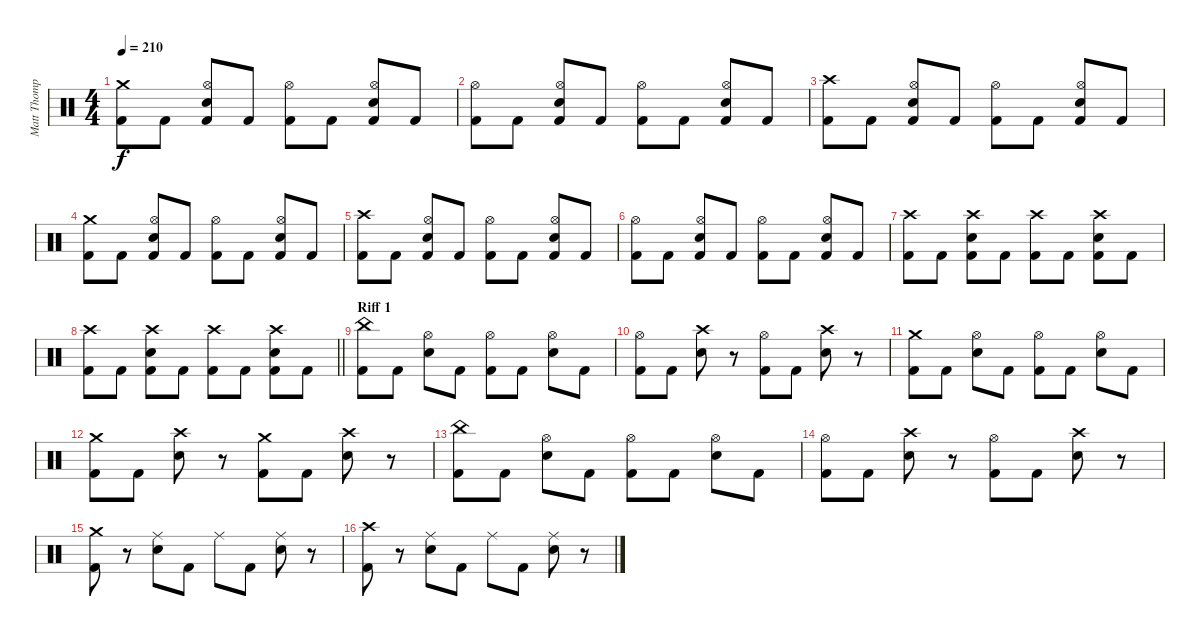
\track ("Matt Thompson" "Matt Thomp") {instrument percussion}
\staff {score}
\articulation defaults
\ts (4 4)
\tempo 210
\clef neutral
\ks c
("Crash medium (hit)" "Kick (hit) 2").8{dy f} "Kick (hit) 2".8 ("Hi-Hat (open)" "Electric Snare (hit)" "Kick (hit) 2").8 "Kick (hit) 2".8 ("Hi-Hat (open)" "Kick (hit) 2").8 "Kick (hit) 2".8 ("Hi-Hat (open)" "Electric Snare (hit)" "Kick (hit) 2").8 "Kick (hit) 2".8 |
("Hi-Hat (open)" "Kick (hit) 2").8 "Kick (hit) 2".8 ("Hi-Hat (open)" "Electric Snare (hit)" "Kick (hit) 2").8 "Kick (hit) 2".8 ("Hi-Hat (open)" "Kick (hit) 2").8 "Kick (hit) 2".8 ("Hi-Hat (open)" "Electric Snare (hit)" "Kick (hit) 2").8 "Kick (hit) 2".8 |
("Crash high (hit)" "Kick (hit) 2").8 "Kick (hit) 2".8 ("Hi-Hat (open)" "Electric Snare (hit)" "Kick (hit) 2").8 "Kick (hit) 2".8 ("Hi-Hat (open)" "Kick (hit) 2").8 "Kick (hit) 2".8 ("Hi-Hat (open)" "Electric Snare (hit)" "Kick (hit) 2").8 "Kick (hit) 2".8 |
("Crash medium (hit)" "Kick (hit) 2").8 "Kick (hit) 2".8 ("Hi-Hat (open)" "Electric Snare (hit)" "Kick (hit) 2").8 "Kick (hit) 2".8 ("Hi-Hat (open)" "Kick (hit) 2").8 "Kick (hit) 2".8 ("Hi-Hat (open)" "Electric Snare (hit)" "Kick (hit) 2").8 "Kick (hit) 2".8 |
("Crash high (hit)" "Kick (hit) 2").8 "Kick (hit) 2".8 ("Hi-Hat (open)" "Electric Snare (hit)" "Kick (hit) 2").8 "Kick (hit) 2".8 ("Hi-Hat (open)" "Kick (hit) 2").8 "Kick (hit) 2".8 ("Hi-Hat (open)" "Electric Snare (hit)" "Kick (hit) 2").8 "Kick (hit) 2".8 |
("Hi-Hat (open)" "Kick (hit) 2").8 "Kick (hit) 2".8 ("Hi-Hat (open)" "Electric Snare (hit)" "Kick (hit) 2").8 "Kick (hit) 2".8 ("Hi-Hat (open)" "Kick (hit) 2").8 "Kick (hit) 2".8 ("Hi-Hat (open)" "Electric Snare (hit)" "Kick (hit) 2").8 "Kick (hit) 2".8 |
("Crash high (hit)" "Kick (hit) 2").8 "Kick (hit) 2".8 ("Crash high (hit)" "Electric Snare (hit)" "Kick (hit) 2").8 "Kick (hit) 2".8 ("Crash high (hit)" "Kick (hit) 2").8 "Kick (hit) 2".8 ("Crash high (hit)" "Electric Snare (hit)" "Kick (hit) 2").8 "Kick (hit) 2".8 |
\barLineRight lightlight
("Crash high (hit)" "Kick (hit) 2").8 "Kick (hit) 2".8 ("Crash high (hit)" "Electric Snare (hit)" "Kick (hit) 2").8 "Kick (hit) 2".8 ("Crash high (hit)" "Kick (hit) 2").8 "Kick (hit) 2".8 ("Crash high (hit)" "Electric Snare (hit)" "Kick (hit) 2").8 "Kick (hit) 2".8 |
\section ("" "Riff 1")
("China (hit)" "Kick (hit) 2").8 "Kick (hit) 2".8 ("Hi-Hat (open)" "Electric Snare (hit)").8 "Kick (hit) 2".8 ("Hi-Hat (open)" "Kick (hit) 2").8 "Kick (hit) 2".8 ("Hi-Hat (open)" "Electric Snare (hit)").8 "Kick (hit) 2".8 |
("Hi-Hat (open)" "Kick (hit) 2").8 "Kick (hit) 2".8 ("Crash high (hit)" "Electric Snare (hit)").8 r.8 ("Hi-Hat (open)" "Kick (hit) 2").8 "Kick (hit) 2".8 ("Crash high (hit)" "Electric Snare (hit)").8 r.8 |
("Crash medium (hit)" "Kick (hit) 2").8 "Kick (hit) 2".8 ("Hi-Hat (open)" "Electric Snare (hit)").8 "Kick (hit) 2".8 ("Hi-Hat (open)" "Kick (hit) 2").8 "Kick (hit) 2".8 ("Hi-Hat (open)" "Electric Snare (hit)").8 "Kick (hit) 2".8 |
("Crash medium (hit)" "Kick (hit) 2").8 "Kick (hit) 2".8 ("Crash high (hit)" "Electric Snare (hit)").8 r.8 ("Crash medium (hit)" "Kick (hit) 2").8 "Kick (hit) 2".8 ("Crash high (hit)" "Electric Snare (hit)").8 r.8 |
("China (hit)" "Kick (hit) 2").8 "Kick (hit) 2".8 ("Hi-Hat (open)" "Electric Snare (hit)").8 "Kick (hit) 2".8 ("Hi-Hat (open)" "Kick (hit) 2").8 "Kick (hit) 2".8 ("Hi-Hat (open)" "Electric Snare (hit)").8 "Kick (hit) 2".8 |
("Hi-Hat (open)" "Kick (hit) 2").8 "Kick (hit) 2".8 ("Crash high (hit)" "Electric Snare (hit)").8 r.8 ("Hi-Hat (open)" "Kick (hit) 2").8 "Kick (hit) 2".8 ("Crash high (hit)" "Electric Snare (hit)").8 r.8 |
("Crash medium (hit)" "Kick (hit) 2").8 r.8 ("Ride (middle)" "Electric Snare (hit)").8 "Kick (hit) 2".8 "Ride (middle)".8 "Kick (hit) 2".8 ("Ride (middle)" "Electric Snare (hit)").8 r.8 |
("Crash high (hit)" "Kick (hit) 2").8 r.8 ("Ride (middle)" "Electric Snare (hit)").8 "Kick (hit) 2".8 "Ride (middle)".8 "Kick (hit) 2".8 ("Ride (middle)" "Electric Snare (hit)").8 r.8
